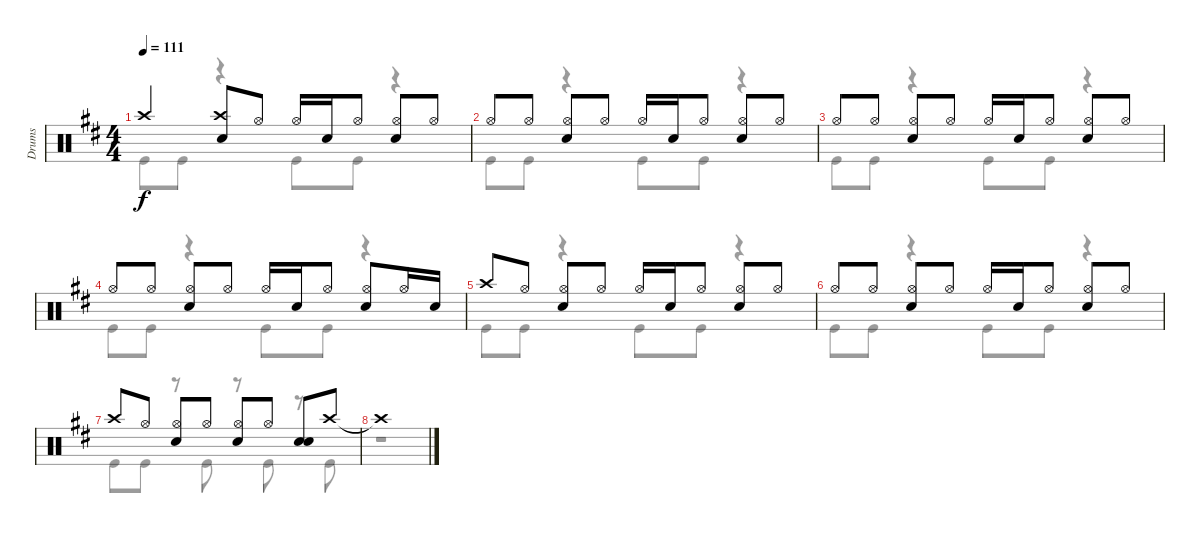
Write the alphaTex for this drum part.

\track ("Drums" "Drums") {instrument percussion}
\staff {score}
\articulation defaults
\voice
\ts (4 4)
\tempo 111
\clef neutral
\ks d "Crash high (hit)".4{dy f beam Up}
("Crash high (hit)" "Snare (hit) 2").8{beam Up} "Hi-Hat (open)".8{beam Up} "Hi-Hat (open)".16{beam Up} "Snare (hit) 2".16{beam Up} "Hi-Hat (open)".8{beam Up} ("Hi-Hat (open)" "Snare (hit) 2").8{beam Up} "Hi-Hat (open)".8{beam Up} |
"Hi-Hat (open)".8{beam Up} "Hi-Hat (open)".8{beam Up} ("Snare (hit) 2" "Hi-Hat (open)").8{beam Up} "Hi-Hat (open)".8{beam Up} "Hi-Hat (open)".16{beam Up} "Snare (hit) 2".16{beam Up} "Hi-Hat (open)".8{beam Up} ("Hi-Hat (open)" "Snare (hit) 2").8{beam Up} "Hi-Hat (open)".8{beam Up} |
"Hi-Hat (open)".8{beam Up} "Hi-Hat (open)".8{beam Up} ("Snare (hit) 2" "Hi-Hat (open)").8{beam Up} "Hi-Hat (open)".8{beam Up} "Hi-Hat (open)".16{beam Up} "Snare (hit) 2".16{beam Up} "Hi-Hat (open)".8{beam Up} ("Hi-Hat (open)" "Snare (hit) 2").8{beam Up} "Hi-Hat (open)".8{beam Up} |
"Hi-Hat (open)".8{beam Up} "Hi-Hat (open)".8{beam Up} ("Snare (hit) 2" "Hi-Hat (open)").8{beam Up} "Hi-Hat (open)".8{beam Up} "Hi-Hat (open)".16{beam Up} "Snare (hit) 2".16{beam Up} "Hi-Hat (open)".8{beam Up} ("Hi-Hat (open)" "Snare (hit) 2").8{beam Up} "Hi-Hat (open)".16{beam Up} "Snare (hit) 2".16{beam Up} |
"Crash high (hit)".8{beam Up} "Hi-Hat (open)".8{beam Up} ("Snare (hit) 2" "Hi-Hat (open)").8{beam Up} "Hi-Hat (open)".8{beam Up} "Hi-Hat (open)".16{beam Up} "Snare (hit) 2".16{beam Up} "Hi-Hat (open)".8{beam Up} ("Hi-Hat (open)" "Snare (hit) 2").8{beam Up} "Hi-Hat (open)".8{beam Up} |
"Hi-Hat (open)".8{beam Up} "Hi-Hat (open)".8{beam Up} ("Snare (hit) 2" "Hi-Hat (open)").8{beam Up} "Hi-Hat (open)".8{beam Up} "Hi-Hat (open)".16{beam Up} "Snare (hit) 2".16{beam Up} "Hi-Hat (open)".8{beam Up} ("Hi-Hat (open)" "Snare (hit) 2").8{beam Up} "Hi-Hat (open)".8{beam Up} |
"Crash high (hit)".8{beam Up} "Hi-Hat (open)".8{beam Up} ("Hi-Hat (open)" "Snare (hit) 2").8{beam Up} "Hi-Hat (open)".8{beam Up} ("Hi-Hat (open)" "Snare (hit) 2").8{beam Up} "Hi-Hat (open)".8{beam Up} ("Snare (hit) 2" "Snare (hit) 2").8{beam Up} "Crash high (hit)".8{beam Up} |
"Crash high (hit)"{t}.1
\voice
\clef neutral
\ottava regular
\simile none
\ks d "Kick (hit)".8{dy f} "Kick (hit)".8
r.4 "Kick (hit)".8 "Kick (hit)".8 r.4 |
"Kick (hit)".8 "Kick (hit)".8 r.4 "Kick (hit)".8 "Kick (hit)".8 r.4 |
"Kick (hit)".8 "Kick (hit)".8 r.4 "Kick (hit)".8 "Kick (hit)".8 r.4 |
"Kick (hit)".8 "Kick (hit)".8 r.4 "Kick (hit)".8 "Kick (hit)".8 r.4 |
"Kick (hit)".8 "Kick (hit)".8 r.4 "Kick (hit)".8 "Kick (hit)".8 r.4 |
"Kick (hit)".8 "Kick (hit)".8 r.4 "Kick (hit)".8 "Kick (hit)".8 r.4 |
"Kick (hit)".8 "Kick (hit)".8 r.8 "Kick (hit)".8 r.8 "Kick (hit)".8 r.8 "Kick (hit)".8 |
r.1
